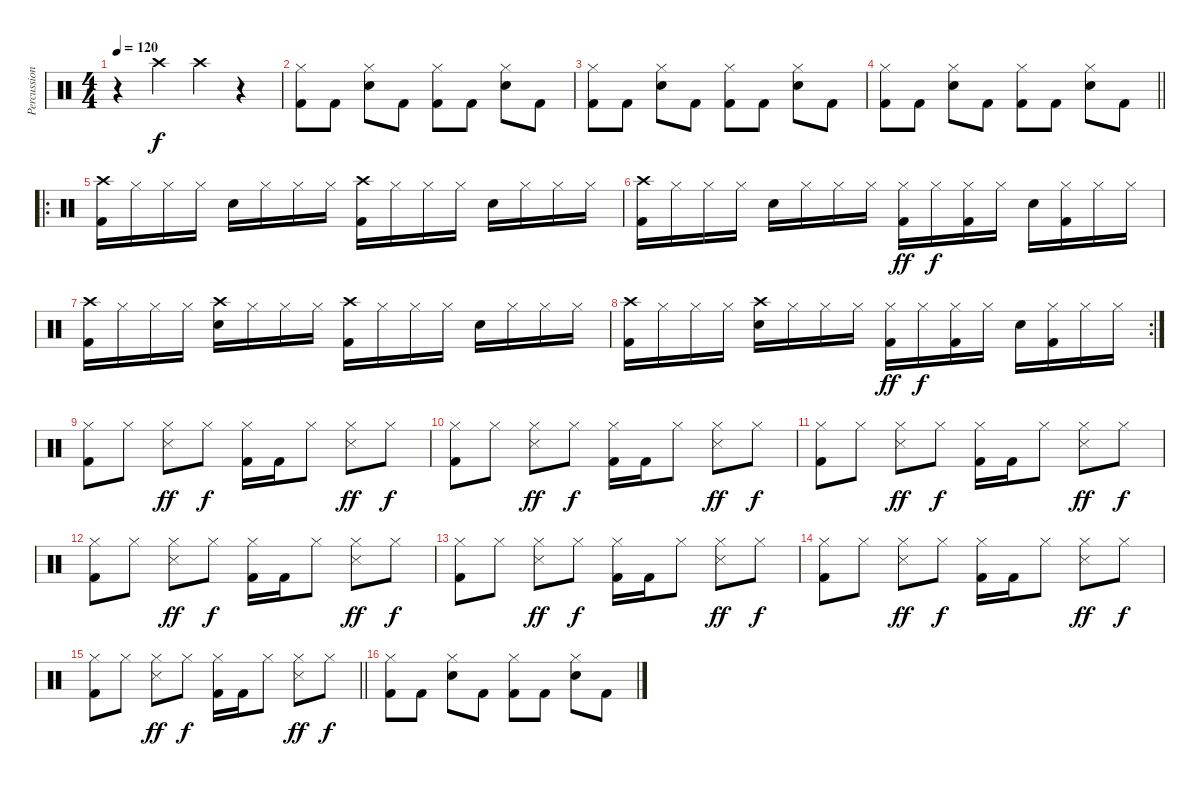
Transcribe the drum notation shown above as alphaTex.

\track ("Percussions" "Percussion") {instrument percussion}
\staff {score}
\articulation defaults
\ts (4 4)
\tempo 120
\clef neutral
\ks c
r.4{dy f} "Crash high (hit)".4 "Crash high (hit)".4 r.4 |
("Hi-Hat (closed)" "Kick (hit) 2").8 "Kick (hit) 2".8 ("Hi-Hat (closed)" "Electric Snare (hit)").8 "Kick (hit) 2".8 ("Hi-Hat (closed)" "Kick (hit) 2").8 "Kick (hit) 2".8 ("Hi-Hat (closed)" "Electric Snare (hit)").8 "Kick (hit) 2".8 |
("Hi-Hat (closed)" "Kick (hit) 2").8 "Kick (hit) 2".8 ("Hi-Hat (closed)" "Electric Snare (hit)").8 "Kick (hit) 2".8 ("Hi-Hat (closed)" "Kick (hit) 2").8 "Kick (hit) 2".8 ("Hi-Hat (closed)" "Electric Snare (hit)").8 "Kick (hit) 2".8 |
\barLineRight lightlight
("Hi-Hat (closed)" "Kick (hit) 2").8 "Kick (hit) 2".8 ("Hi-Hat (closed)" "Electric Snare (hit)").8 "Kick (hit) 2".8 ("Hi-Hat (closed)" "Kick (hit) 2").8 "Kick (hit) 2".8 ("Hi-Hat (closed)" "Electric Snare (hit)").8 "Kick (hit) 2".8 |
\ro
("Crash high (hit)" "Kick (hit) 2").16 "Hi-Hat (closed)".16 "Hi-Hat (closed)".16 "Hi-Hat (closed)".16 "Snare (hit) 2".16 "Hi-Hat (closed)".16 "Hi-Hat (closed)".16 "Hi-Hat (closed)".16 ("Crash high (hit)" "Kick (hit) 2").16 "Hi-Hat (closed)".16 "Hi-Hat (closed)".16 "Hi-Hat (closed)".16 "Snare (hit) 2".16 "Hi-Hat (closed)".16 "Hi-Hat (closed)".16 "Hi-Hat (closed)".16 |
("Crash high (hit)" "Kick (hit) 2").16 "Hi-Hat (closed)".16 "Hi-Hat (closed)".16 "Hi-Hat (closed)".16 "Snare (hit) 2".16 "Hi-Hat (closed)".16 "Hi-Hat (closed)".16 "Hi-Hat (closed)".16 ("Hi-Hat (closed)" "Kick (hit) 2").16{dy ff} "Hi-Hat (closed)".16{dy f} ("Hi-Hat (closed)" "Kick (hit) 2").16 "Hi-Hat (closed)".16 "Snare (hit) 2".16 ("Hi-Hat (closed)" "Kick (hit) 2").16 "Hi-Hat (closed)".16 "Hi-Hat (closed)".16 |
("Crash high (hit)" "Kick (hit) 2").16 "Hi-Hat (closed)".16 "Hi-Hat (closed)".16 "Hi-Hat (closed)".16 ("Snare (hit) 2" "Crash high (hit)").16 "Hi-Hat (closed)".16 "Hi-Hat (closed)".16 "Hi-Hat (closed)".16 ("Crash high (hit)" "Kick (hit) 2").16 "Hi-Hat (closed)".16 "Hi-Hat (closed)".16 "Hi-Hat (closed)".16 "Snare (hit) 2".16 "Hi-Hat (closed)".16 "Hi-Hat (closed)".16 "Hi-Hat (closed)".16 |
\rc 2
("Crash high (hit)" "Kick (hit) 2").16 "Hi-Hat (closed)".16 "Hi-Hat (closed)".16 "Hi-Hat (closed)".16 ("Snare (hit) 2" "Crash high (hit)").16 "Hi-Hat (closed)".16 "Hi-Hat (closed)".16 "Hi-Hat (closed)".16 ("Hi-Hat (closed)" "Kick (hit) 2").16{dy ff} "Hi-Hat (closed)".16{dy f} ("Hi-Hat (closed)" "Kick (hit) 2").16 "Hi-Hat (closed)".16 "Snare (hit) 2".16 ("Hi-Hat (closed)" "Kick (hit) 2").16 "Hi-Hat (closed)".16 "Hi-Hat (closed)".16 |
("Hi-Hat (closed)" "Kick (hit) 2").8 "Hi-Hat (closed)".8 ("Hi-Hat (closed)" "Snare (side stick) 3").8{dy ff} "Hi-Hat (closed)".8{dy f} ("Hi-Hat (closed)" "Kick (hit) 2").16 "Kick (hit) 2".16 "Hi-Hat (closed)".8 ("Hi-Hat (closed)" "Snare (side stick) 3").8{dy ff} "Hi-Hat (closed)".8{dy f} |
("Hi-Hat (closed)" "Kick (hit) 2").8 "Hi-Hat (closed)".8 ("Hi-Hat (closed)" "Snare (side stick) 3").8{dy ff} "Hi-Hat (closed)".8{dy f} ("Hi-Hat (closed)" "Kick (hit) 2").16 "Kick (hit) 2".16 "Hi-Hat (closed)".8 ("Hi-Hat (closed)" "Snare (side stick) 3").8{dy ff} "Hi-Hat (closed)".8{dy f} |
("Hi-Hat (closed)" "Kick (hit) 2").8 "Hi-Hat (closed)".8 ("Hi-Hat (closed)" "Snare (side stick) 3").8{dy ff} "Hi-Hat (closed)".8{dy f} ("Hi-Hat (closed)" "Kick (hit) 2").16 "Kick (hit) 2".16 "Hi-Hat (closed)".8 ("Hi-Hat (closed)" "Snare (side stick) 3").8{dy ff} "Hi-Hat (closed)".8{dy f} |
("Hi-Hat (closed)" "Kick (hit) 2").8 "Hi-Hat (closed)".8 ("Hi-Hat (closed)" "Snare (side stick) 3").8{dy ff} "Hi-Hat (closed)".8{dy f} ("Hi-Hat (closed)" "Kick (hit) 2").16 "Kick (hit) 2".16 "Hi-Hat (closed)".8 ("Hi-Hat (closed)" "Snare (side stick) 3").8{dy ff} "Hi-Hat (closed)".8{dy f} |
("Hi-Hat (closed)" "Kick (hit) 2").8 "Hi-Hat (closed)".8 ("Hi-Hat (closed)" "Snare (side stick) 3").8{dy ff} "Hi-Hat (closed)".8{dy f} ("Hi-Hat (closed)" "Kick (hit) 2").16 "Kick (hit) 2".16 "Hi-Hat (closed)".8 ("Hi-Hat (closed)" "Snare (side stick) 3").8{dy ff} "Hi-Hat (closed)".8{dy f} |
("Hi-Hat (closed)" "Kick (hit) 2").8 "Hi-Hat (closed)".8 ("Hi-Hat (closed)" "Snare (side stick) 3").8{dy ff} "Hi-Hat (closed)".8{dy f} ("Hi-Hat (closed)" "Kick (hit) 2").16 "Kick (hit) 2".16 "Hi-Hat (closed)".8 ("Hi-Hat (closed)" "Snare (side stick) 3").8{dy ff} "Hi-Hat (closed)".8{dy f} |
\barLineRight lightlight
("Hi-Hat (closed)" "Kick (hit) 2").8 "Hi-Hat (closed)".8 ("Hi-Hat (closed)" "Snare (side stick) 3").8{dy ff} "Hi-Hat (closed)".8{dy f} ("Hi-Hat (closed)" "Kick (hit) 2").16 "Kick (hit) 2".16 "Hi-Hat (closed)".8 ("Hi-Hat (closed)" "Snare (side stick) 3").8{dy ff} "Hi-Hat (closed)".8{dy f} |
("Hi-Hat (closed)" "Kick (hit) 2").8 "Kick (hit) 2".8 ("Hi-Hat (closed)" "Electric Snare (hit)").8 "Kick (hit) 2".8 ("Hi-Hat (closed)" "Kick (hit) 2").8 "Kick (hit) 2".8 ("Hi-Hat (closed)" "Electric Snare (hit)").8 "Kick (hit) 2".8
